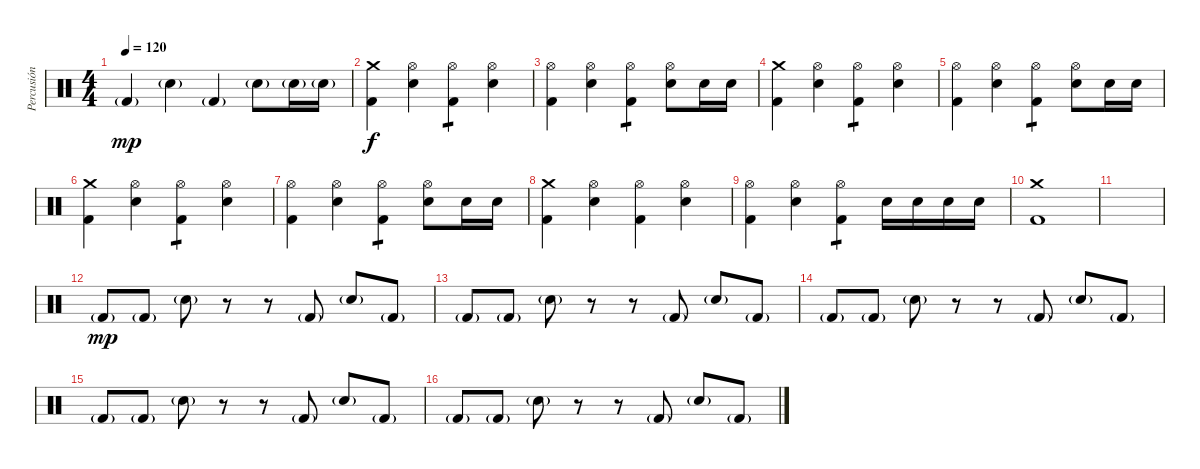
\track ("Percusión" "Percusión") {instrument percussion}
\staff {score}
\articulation defaults
\ts (4 4)
\tempo 120
\clef neutral
\ks c "Kick (hit) 2"{g}.4{dy mp} "Electric Snare (hit)"{g}.4 "Kick (hit) 2"{g}.4 "Electric Snare (hit)"{g}.8 "Electric Snare (hit)"{g}.16 "Electric Snare (hit)"{g}.16
|
("Crash medium (hit)" "Kick (hit) 2").4{dy f} ("Hi-Hat (open)" "Electric Snare (hit)").4 ("Hi-Hat (open)" "Kick (hit) 2").4{tp 1} ("Hi-Hat (open)" "Electric Snare (hit)").4 |
("Hi-Hat (open)" "Kick (hit) 2").4 ("Hi-Hat (open)" "Electric Snare (hit)").4 ("Hi-Hat (open)" "Kick (hit) 2").4{tp 1} ("Hi-Hat (open)" "Electric Snare (hit)").8 "Electric Snare (hit)".16 "Electric Snare (hit)".16 |
("Crash medium (hit)" "Kick (hit) 2").4 ("Hi-Hat (open)" "Electric Snare (hit)").4 ("Hi-Hat (open)" "Kick (hit) 2").4{tp 1} ("Hi-Hat (open)" "Electric Snare (hit)").4 |
("Hi-Hat (open)" "Kick (hit) 2").4 ("Hi-Hat (open)" "Electric Snare (hit)").4 ("Hi-Hat (open)" "Kick (hit) 2").4{tp 1} ("Hi-Hat (open)" "Electric Snare (hit)").8 "Electric Snare (hit)".16 "Electric Snare (hit)".16 |
("Crash medium (hit)" "Kick (hit) 2").4 ("Hi-Hat (open)" "Electric Snare (hit)").4 ("Hi-Hat (open)" "Kick (hit) 2").4{tp 1} ("Hi-Hat (open)" "Electric Snare (hit)").4 |
("Hi-Hat (open)" "Kick (hit) 2").4 ("Hi-Hat (open)" "Electric Snare (hit)").4 ("Hi-Hat (open)" "Kick (hit) 2").4{tp 1} ("Hi-Hat (open)" "Electric Snare (hit)").8 "Electric Snare (hit)".16 "Electric Snare (hit)".16 |
("Crash medium (hit)" "Kick (hit) 2").4 ("Hi-Hat (open)" "Electric Snare (hit)").4 ("Hi-Hat (open)" "Kick (hit) 2").4 ("Hi-Hat (open)" "Electric Snare (hit)").4 |
("Hi-Hat (open)" "Kick (hit) 2").4 ("Hi-Hat (open)" "Electric Snare (hit)").4 ("Hi-Hat (open)" "Kick (hit) 2").4{tp 1} "Electric Snare (hit)".16 "Electric Snare (hit)".16 "Electric Snare (hit)".16 "Electric Snare (hit)".16 |
("Crash medium (hit)" "Kick (hit) 2").1 |
|
"Kick (hit) 2"{g}.8{dy mp} "Kick (hit) 2"{g}.8 "Electric Snare (hit)"{g}.8 r.8 r.8 "Kick (hit) 2"{g}.8 "Electric Snare (hit)"{g}.8 "Kick (hit) 2"{g}.8 |
"Kick (hit) 2"{g}.8 "Kick (hit) 2"{g}.8 "Electric Snare (hit)"{g}.8 r.8 r.8 "Kick (hit) 2"{g}.8 "Electric Snare (hit)"{g}.8 "Kick (hit) 2"{g}.8 |
"Kick (hit) 2"{g}.8 "Kick (hit) 2"{g}.8 "Electric Snare (hit)"{g}.8 r.8 r.8 "Kick (hit) 2"{g}.8 "Electric Snare (hit)"{g}.8 "Kick (hit) 2"{g}.8 |
"Kick (hit) 2"{g}.8 "Kick (hit) 2"{g}.8 "Electric Snare (hit)"{g}.8 r.8 r.8 "Kick (hit) 2"{g}.8 "Electric Snare (hit)"{g}.8 "Kick (hit) 2"{g}.8 |
"Kick (hit) 2"{g}.8 "Kick (hit) 2"{g}.8 "Electric Snare (hit)"{g}.8 r.8 r.8 "Kick (hit) 2"{g}.8 "Electric Snare (hit)"{g}.8 "Kick (hit) 2"{g}.8
